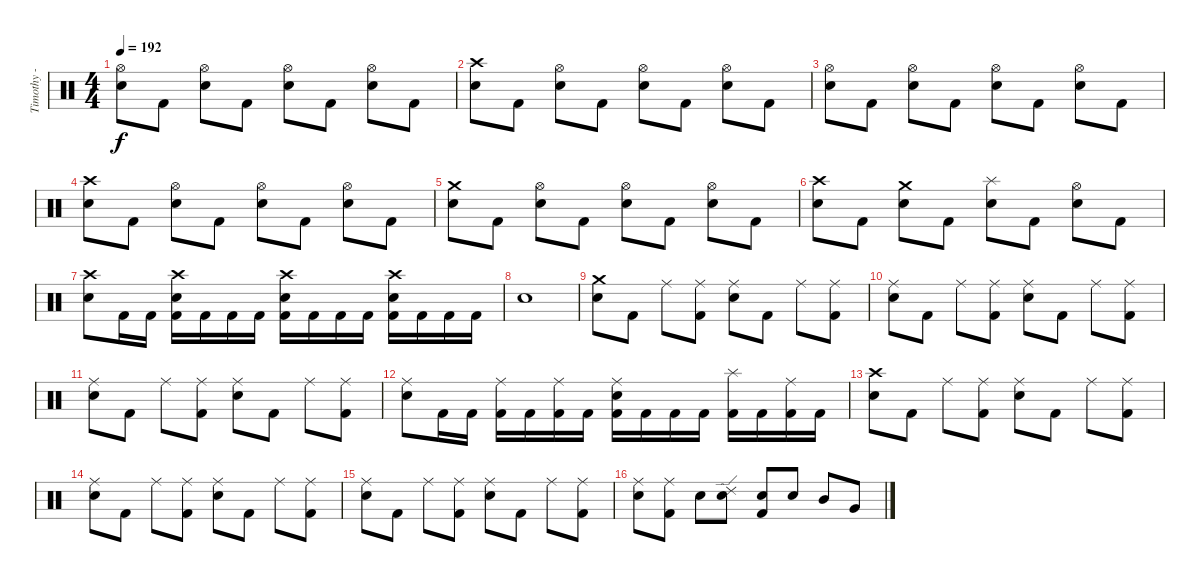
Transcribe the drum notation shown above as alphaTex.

\track ("Timothy - Drums" "Timothy - ") {instrument percussion}
\staff {score}
\articulation defaults
\ts (4 4)
\tempo 192
\clef neutral
\ks c
("Hi-Hat (open)" "Electric Snare (hit)").8{dy f} "Kick (hit) 2".8 ("Hi-Hat (open)" "Electric Snare (hit)").8 "Kick (hit) 2".8 ("Hi-Hat (open)" "Electric Snare (hit)").8 "Kick (hit) 2".8 ("Hi-Hat (open)" "Electric Snare (hit)").8 "Kick (hit) 2".8 |
("Crash high (hit)" "Electric Snare (hit)").8 "Kick (hit) 2".8 ("Hi-Hat (open)" "Electric Snare (hit)").8 "Kick (hit) 2".8 ("Hi-Hat (open)" "Electric Snare (hit)").8 "Kick (hit) 2".8 ("Hi-Hat (open)" "Electric Snare (hit)").8 "Kick (hit) 2".8 |
("Hi-Hat (open)" "Electric Snare (hit)").8 "Kick (hit) 2".8 ("Hi-Hat (open)" "Electric Snare (hit)").8 "Kick (hit) 2".8 ("Hi-Hat (open)" "Electric Snare (hit)").8 "Kick (hit) 2".8 ("Hi-Hat (open)" "Electric Snare (hit)").8 "Kick (hit) 2".8 |
("Crash high (hit)" "Electric Snare (hit)").8 "Kick (hit) 2".8 ("Hi-Hat (open)" "Electric Snare (hit)").8 "Kick (hit) 2".8 ("Hi-Hat (open)" "Electric Snare (hit)").8 "Kick (hit) 2".8 ("Hi-Hat (open)" "Electric Snare (hit)").8 "Kick (hit) 2".8 |
("Crash medium (hit)" "Electric Snare (hit)").8 "Kick (hit) 2".8 ("Hi-Hat (open)" "Electric Snare (hit)").8 "Kick (hit) 2".8 ("Hi-Hat (open)" "Electric Snare (hit)").8 "Kick (hit) 2".8 ("Hi-Hat (open)" "Electric Snare (hit)").8 "Kick (hit) 2".8 |
("Crash high (hit)" "Electric Snare (hit)").8 "Kick (hit) 2".8 ("Crash medium (hit)" "Electric Snare (hit)").8 "Kick (hit) 2".8 ("Splash (hit)" "Electric Snare (hit)").8 "Kick (hit) 2".8 ("Hi-Hat (open)" "Electric Snare (hit)").8 "Kick (hit) 2".8 |
("Crash high (hit)" "Electric Snare (hit)").8 "Kick (hit) 2".16 "Kick (hit) 2".16 ("Crash high (hit)" "Electric Snare (hit)" "Kick (hit) 2").16 "Kick (hit) 2".16 "Kick (hit) 2".16 "Kick (hit) 2".16 ("Crash high (hit)" "Electric Snare (hit)" "Kick (hit) 2").16 "Kick (hit) 2".16 "Kick (hit) 2".16 "Kick (hit) 2".16 ("Crash high (hit)" "Electric Snare (hit)" "Kick (hit) 2").16 "Kick (hit) 2".16 "Kick (hit) 2".16 "Kick (hit) 2".16 |
"Electric Snare (hit)".1 |
("Crash medium (hit)" "Electric Snare (hit)").8 "Kick (hit) 2".8 "Ride (middle)".8 ("Ride (middle)" "Kick (hit) 2").8 ("Ride (middle)" "Electric Snare (hit)").8 "Kick (hit) 2".8 "Ride (middle)".8 ("Ride (middle)" "Kick (hit) 2").8 |
("Ride (middle)" "Electric Snare (hit)").8 "Kick (hit) 2".8 "Ride (middle)".8 ("Ride (middle)" "Kick (hit) 2").8 ("Ride (middle)" "Electric Snare (hit)").8 "Kick (hit) 2".8 "Ride (middle)".8 ("Ride (middle)" "Kick (hit) 2").8 |
("Ride (middle)" "Electric Snare (hit)").8 "Kick (hit) 2".8 "Ride (middle)".8 ("Ride (middle)" "Kick (hit) 2").8 ("Ride (middle)" "Electric Snare (hit)").8 "Kick (hit) 2".8 "Ride (middle)".8 ("Ride (middle)" "Kick (hit) 2").8 |
("Ride (middle)" "Electric Snare (hit)").8 "Kick (hit) 2".16 "Kick (hit) 2".16 ("Ride (middle)" "Kick (hit) 2").16 "Kick (hit) 2".16 ("Ride (middle)" "Kick (hit) 2").16 "Kick (hit) 2".16 ("Ride (middle)" "Electric Snare (hit)" "Kick (hit) 2").16 "Kick (hit) 2".16 "Kick (hit) 2".16 "Kick (hit) 2".16 ("Splash (hit)" "Kick (hit) 2").16 "Kick (hit) 2".16 ("Ride (middle)" "Kick (hit) 2").16 "Kick (hit) 2".16 |
("Crash high (hit)" "Electric Snare (hit)").8 "Kick (hit) 2".8 "Ride (middle)".8 ("Ride (middle)" "Kick (hit) 2").8 ("Ride (middle)" "Electric Snare (hit)").8 "Kick (hit) 2".8 "Ride (middle)".8 ("Ride (middle)" "Kick (hit) 2").8 |
("Ride (middle)" "Electric Snare (hit)").8 "Kick (hit) 2".8 "Ride (middle)".8 ("Ride (middle)" "Kick (hit) 2").8 ("Ride (middle)" "Electric Snare (hit)").8 "Kick (hit) 2".8 "Ride (middle)".8 ("Ride (middle)" "Kick (hit) 2").8 |
("Ride (middle)" "Electric Snare (hit)").8 "Kick (hit) 2".8 "Ride (middle)".8 ("Ride (middle)" "Kick (hit) 2").8 ("Ride (middle)" "Electric Snare (hit)").8 "Kick (hit) 2".8 "Ride (middle)".8 ("Ride (middle)" "Kick (hit) 2").8 |
("Ride (middle)" "Electric Snare (hit)").8 ("Ride (middle)" "Kick (hit) 2").8 "Electric Snare (hit)".8 ("Ride (edge) 2" "Electric Snare (hit)").8 ("Electric Snare (hit)" "Kick (hit) 2").8 "Electric Snare (hit)".8 "Mid Tom (hit)".8 "Very Low Tom (hit)".8
